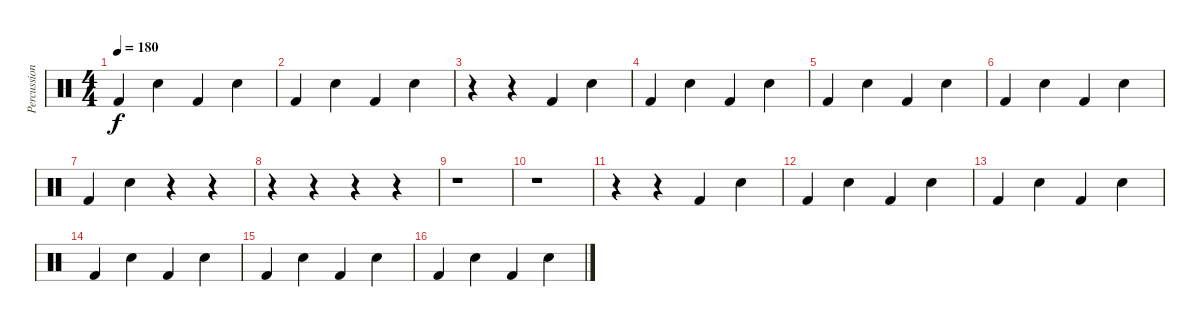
\track ("Percussion" "Percussion") {instrument percussion}
\staff {score}
\articulation defaults
\ts (4 4)
\tempo 180
\clef neutral
\ks c "Kick (hit) 2".4{dy f} "Snare (hit) 2".4 "Kick (hit) 2".4 "Snare (hit) 2".4
|
"Kick (hit) 2".4 "Snare (hit) 2".4 "Kick (hit) 2".4 "Snare (hit) 2".4 |
r.4 r.4 "Kick (hit) 2".4 "Snare (hit) 2".4 |
"Kick (hit) 2".4 "Snare (hit) 2".4 "Kick (hit) 2".4 "Snare (hit) 2".4 |
"Kick (hit) 2".4 "Snare (hit) 2".4 "Kick (hit) 2".4 "Snare (hit) 2".4 |
"Kick (hit) 2".4 "Snare (hit) 2".4 "Kick (hit) 2".4 "Snare (hit) 2".4 |
"Kick (hit) 2".4 "Snare (hit) 2".4 r.4 r.4 |
r.4 r.4 r.4 r.4 |
r.1 |
r.1 |
r.4 r.4 "Kick (hit) 2".4 "Snare (hit) 2".4 |
"Kick (hit) 2".4 "Snare (hit) 2".4 "Kick (hit) 2".4 "Snare (hit) 2".4 |
"Kick (hit) 2".4 "Snare (hit) 2".4 "Kick (hit) 2".4 "Snare (hit) 2".4 |
"Kick (hit) 2".4 "Snare (hit) 2".4 "Kick (hit) 2".4 "Snare (hit) 2".4 |
"Kick (hit) 2".4 "Snare (hit) 2".4 "Kick (hit) 2".4 "Snare (hit) 2".4 |
"Kick (hit) 2".4 "Snare (hit) 2".4 "Kick (hit) 2".4 "Snare (hit) 2".4
